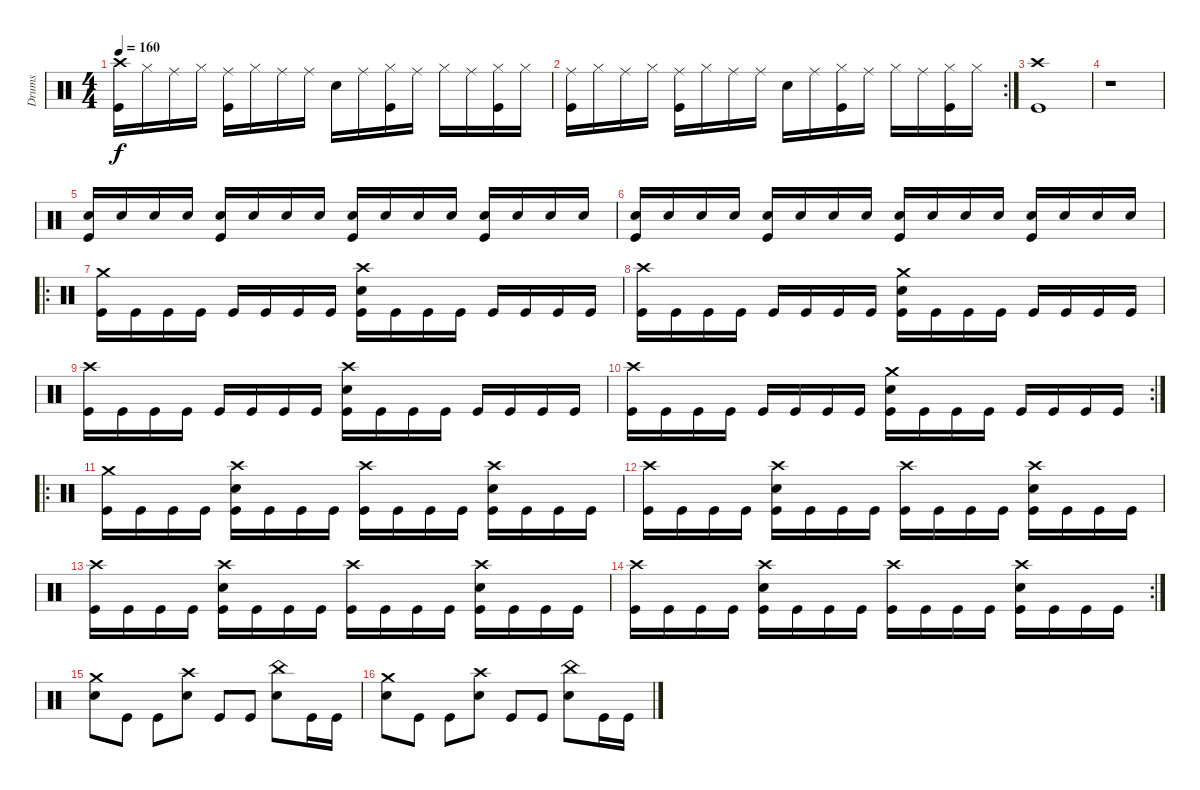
\track ("Drums" "Drums") {instrument percussion}
\staff {score}
\articulation defaults
\ts (4 4)
\tempo 160
\clef neutral
\ks c
("Crash high (hit)" "Kick (hit)").16{dy f} "Hi-Hat (closed)".16 "Ride (middle)".16 "Hi-Hat (closed)".16 ("Ride (middle)" "Kick (hit)").16 "Hi-Hat (closed)".16 "Ride (middle)".16 "Ride (middle)".16 "Electric Snare (hit)".16 "Ride (middle)".16 ("Hi-Hat (closed)" "Kick (hit)").16 "Ride (middle)".16 "Hi-Hat (closed)".16 "Ride (middle)".16 ("Hi-Hat (closed)" "Kick (hit)").16 "Hi-Hat (closed)".16 |
\rc 2
("Ride (middle)" "Kick (hit)").16 "Hi-Hat (closed)".16 "Ride (middle)".16 "Hi-Hat (closed)".16 ("Ride (middle)" "Kick (hit)").16 "Hi-Hat (closed)".16 "Ride (middle)".16 "Ride (middle)".16 "Electric Snare (hit)".16 "Ride (middle)".16 ("Hi-Hat (closed)" "Kick (hit)").16 "Ride (middle)".16 "Hi-Hat (closed)".16 "Ride (middle)".16 ("Hi-Hat (closed)" "Kick (hit)").16 "Hi-Hat (closed)".16 |
("Crash high (hit)" "Kick (hit)").1 |
r.1{volume 0} |
("Electric Snare (hit)" "Kick (hit)").16{volume 16} "Electric Snare (hit)".16 "Electric Snare (hit)".16 "Electric Snare (hit)".16 ("Electric Snare (hit)" "Kick (hit)").16 "Electric Snare (hit)".16 "Electric Snare (hit)".16 "Electric Snare (hit)".16 ("Electric Snare (hit)" "Kick (hit)").16 "Electric Snare (hit)".16 "Electric Snare (hit)".16 "Electric Snare (hit)".16 ("Electric Snare (hit)" "Kick (hit)").16 "Electric Snare (hit)".16 "Electric Snare (hit)".16 "Electric Snare (hit)".16 |
("Electric Snare (hit)" "Kick (hit)").16 "Electric Snare (hit)".16 "Electric Snare (hit)".16 "Electric Snare (hit)".16 ("Electric Snare (hit)" "Kick (hit)").16 "Electric Snare (hit)".16 "Electric Snare (hit)".16 "Electric Snare (hit)".16 ("Electric Snare (hit)" "Kick (hit)").16 "Electric Snare (hit)".16 "Electric Snare (hit)".16 "Electric Snare (hit)".16 ("Electric Snare (hit)" "Kick (hit)").16 "Electric Snare (hit)".16 "Electric Snare (hit)".16 "Electric Snare (hit)".16 |
\ro
("Crash medium (hit)" "Kick (hit)").16 "Kick (hit)".16 "Kick (hit)".16 "Kick (hit)".16 "Kick (hit)".16 "Kick (hit)".16 "Kick (hit)".16 "Kick (hit)".16 ("Crash high (hit)" "Electric Snare (hit)" "Kick (hit)").16 "Kick (hit)".16 "Kick (hit)".16 "Kick (hit)".16 "Kick (hit)".16 "Kick (hit)".16 "Kick (hit)".16 "Kick (hit)".16 |
("Crash high (hit)" "Kick (hit)").16 "Kick (hit)".16 "Kick (hit)".16 "Kick (hit)".16 "Kick (hit)".16 "Kick (hit)".16 "Kick (hit)".16 "Kick (hit)".16 ("Crash medium (hit)" "Electric Snare (hit)" "Kick (hit)").16 "Kick (hit)".16 "Kick (hit)".16 "Kick (hit)".16 "Kick (hit)".16 "Kick (hit)".16 "Kick (hit)".16 "Kick (hit)".16 |
("Crash high (hit)" "Kick (hit)").16 "Kick (hit)".16 "Kick (hit)".16 "Kick (hit)".16 "Kick (hit)".16 "Kick (hit)".16 "Kick (hit)".16 "Kick (hit)".16 ("Crash high (hit)" "Electric Snare (hit)" "Kick (hit)").16 "Kick (hit)".16 "Kick (hit)".16 "Kick (hit)".16 "Kick (hit)".16 "Kick (hit)".16 "Kick (hit)".16 "Kick (hit)".16 |
\rc 2
("Crash high (hit)" "Kick (hit)").16 "Kick (hit)".16 "Kick (hit)".16 "Kick (hit)".16 "Kick (hit)".16 "Kick (hit)".16 "Kick (hit)".16 "Kick (hit)".16 ("Crash medium (hit)" "Electric Snare (hit)" "Kick (hit)").16 "Kick (hit)".16 "Kick (hit)".16 "Kick (hit)".16 "Kick (hit)".16 "Kick (hit)".16 "Kick (hit)".16 "Kick (hit)".16 |
\ro
("Crash medium (hit)" "Kick (hit)").16 "Kick (hit)".16 "Kick (hit)".16 "Kick (hit)".16 ("Crash high (hit)" "Electric Snare (hit)" "Kick (hit)").16 "Kick (hit)".16 "Kick (hit)".16 "Kick (hit)".16 ("Crash high (hit)" "Kick (hit)").16 "Kick (hit)".16 "Kick (hit)".16 "Kick (hit)".16 ("Crash high (hit)" "Electric Snare (hit)" "Kick (hit)").16 "Kick (hit)".16 "Kick (hit)".16 "Kick (hit)".16 |
("Crash high (hit)" "Kick (hit)").16 "Kick (hit)".16 "Kick (hit)".16 "Kick (hit)".16 ("Crash high (hit)" "Electric Snare (hit)" "Kick (hit)").16 "Kick (hit)".16 "Kick (hit)".16 "Kick (hit)".16 ("Crash high (hit)" "Kick (hit)").16 "Kick (hit)".16 "Kick (hit)".16 "Kick (hit)".16 ("Crash high (hit)" "Electric Snare (hit)" "Kick (hit)").16 "Kick (hit)".16 "Kick (hit)".16 "Kick (hit)".16 |
("Crash high (hit)" "Kick (hit)").16 "Kick (hit)".16 "Kick (hit)".16 "Kick (hit)".16 ("Crash high (hit)" "Electric Snare (hit)" "Kick (hit)").16 "Kick (hit)".16 "Kick (hit)".16 "Kick (hit)".16 ("Crash high (hit)" "Kick (hit)").16 "Kick (hit)".16 "Kick (hit)".16 "Kick (hit)".16 ("Crash high (hit)" "Electric Snare (hit)" "Kick (hit)").16 "Kick (hit)".16 "Kick (hit)".16 "Kick (hit)".16 |
\rc 2
("Crash high (hit)" "Kick (hit)").16 "Kick (hit)".16 "Kick (hit)".16 "Kick (hit)".16 ("Crash high (hit)" "Electric Snare (hit)" "Kick (hit)").16 "Kick (hit)".16 "Kick (hit)".16 "Kick (hit)".16 ("Crash high (hit)" "Kick (hit)").16 "Kick (hit)".16 "Kick (hit)".16 "Kick (hit)".16 ("Crash high (hit)" "Electric Snare (hit)" "Kick (hit)").16 "Kick (hit)".16 "Kick (hit)".16 "Kick (hit)".16 |
("Crash medium (hit)" "Electric Snare (hit)").8 "Kick (hit)".8 "Kick (hit)".8 ("Crash high (hit)" "Electric Snare (hit)").8 "Kick (hit)".8 "Kick (hit)".8 ("China (hit)" "Electric Snare (hit)").8 "Kick (hit)".16 "Kick (hit)".16 |
("Crash medium (hit)" "Electric Snare (hit)").8 "Kick (hit)".8 "Kick (hit)".8 ("Crash high (hit)" "Electric Snare (hit)").8 "Kick (hit)".8 "Kick (hit)".8 ("China (hit)" "Electric Snare (hit)").8 "Kick (hit)".16 "Kick (hit)".16
